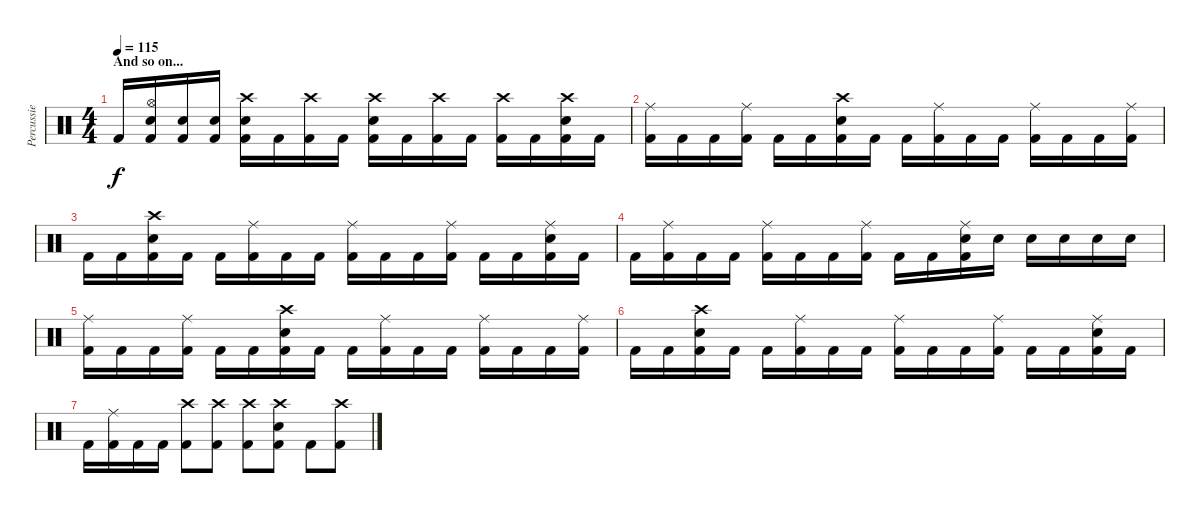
\track ("Percussie" "Percussie") {instrument percussion}
\staff {score}
\articulation defaults
\ts (4 4)
\section ("" "And so on...")
\tempo 115
\clef neutral
\ks c "Kick (hit) 2".16{dy f}
("Hi-Hat (open)" "Electric Snare (hit)" "Kick (hit) 2").16 ("Electric Snare (hit)" "Kick (hit) 2").16 ("Electric Snare (hit)" "Kick (hit) 2").16 ("Crash high (hit)" "Electric Snare (hit)" "Kick (hit) 2").16 "Kick (hit) 2".16 ("Crash high (hit)" "Kick (hit) 2").16 "Kick (hit) 2".16 ("Crash high (hit)" "Electric Snare (hit)" "Kick (hit) 2").16 "Kick (hit) 2".16 ("Crash high (hit)" "Kick (hit) 2").16 "Kick (hit) 2".16 ("Crash high (hit)" "Kick (hit) 2").16 "Kick (hit) 2".16 ("Crash high (hit)" "Electric Snare (hit)" "Kick (hit) 2").16 "Kick (hit) 2".16 |
("Ride (middle)" "Kick (hit) 2").16 "Kick (hit) 2".16 "Kick (hit) 2".16 ("Ride (middle)" "Kick (hit) 2").16 "Kick (hit) 2".16 "Kick (hit) 2".16 ("Crash high (hit)" "Electric Snare (hit)" "Kick (hit) 2").16 "Kick (hit) 2".16 "Kick (hit) 2".16 ("Ride (middle)" "Kick (hit) 2").16 "Kick (hit) 2".16 "Kick (hit) 2".16 ("Ride (middle)" "Kick (hit) 2").16 "Kick (hit) 2".16 "Kick (hit) 2".16 ("Ride (middle)" "Kick (hit) 2").16 |
"Kick (hit) 2".16 "Kick (hit) 2".16 ("Crash high (hit)" "Electric Snare (hit)" "Kick (hit) 2").16 "Kick (hit) 2".16 "Kick (hit) 2".16 ("Ride (middle)" "Kick (hit) 2").16 "Kick (hit) 2".16 "Kick (hit) 2".16 ("Ride (middle)" "Kick (hit) 2").16 "Kick (hit) 2".16 "Kick (hit) 2".16 ("Ride (middle)" "Kick (hit) 2").16 "Kick (hit) 2".16 "Kick (hit) 2".16 ("Ride (middle)" "Electric Snare (hit)" "Kick (hit) 2").16 "Kick (hit) 2".16 |
"Kick (hit) 2".16 ("Ride (middle)" "Kick (hit) 2").16 "Kick (hit) 2".16 "Kick (hit) 2".16 ("Ride (middle)" "Kick (hit) 2").16 "Kick (hit) 2".16 "Kick (hit) 2".16 ("Ride (middle)" "Kick (hit) 2").16 "Kick (hit) 2".16 "Kick (hit) 2".16 ("Ride (middle)" "Electric Snare (hit)" "Kick (hit) 2").16 "Electric Snare (hit)".16 "Electric Snare (hit)".16 "Electric Snare (hit)".16 "Electric Snare (hit)".16 "Electric Snare (hit)".16 |
("Ride (middle)" "Kick (hit) 2").16 "Kick (hit) 2".16 "Kick (hit) 2".16 ("Ride (middle)" "Kick (hit) 2").16 "Kick (hit) 2".16 "Kick (hit) 2".16 ("Crash high (hit)" "Electric Snare (hit)" "Kick (hit) 2").16 "Kick (hit) 2".16 "Kick (hit) 2".16 ("Ride (middle)" "Kick (hit) 2").16 "Kick (hit) 2".16 "Kick (hit) 2".16 ("Ride (middle)" "Kick (hit) 2").16 "Kick (hit) 2".16 "Kick (hit) 2".16 ("Ride (middle)" "Kick (hit) 2").16 |
"Kick (hit) 2".16 "Kick (hit) 2".16 ("Crash high (hit)" "Electric Snare (hit)" "Kick (hit) 2").16 "Kick (hit) 2".16 "Kick (hit) 2".16 ("Ride (middle)" "Kick (hit) 2").16 "Kick (hit) 2".16 "Kick (hit) 2".16 ("Ride (middle)" "Kick (hit) 2").16 "Kick (hit) 2".16 "Kick (hit) 2".16 ("Ride (middle)" "Kick (hit) 2").16 "Kick (hit) 2".16 "Kick (hit) 2".16 ("Ride (middle)" "Electric Snare (hit)" "Kick (hit) 2").16 "Kick (hit) 2".16 |
"Kick (hit) 2".16 ("Ride (middle)" "Kick (hit) 2").16 "Kick (hit) 2".16 "Kick (hit) 2".16 ("Crash high (hit)" "Kick (hit) 2").8 ("Crash high (hit)" "Kick (hit) 2").8 ("Crash high (hit)" "Kick (hit) 2").8 ("Crash high (hit)" "Electric Snare (hit)" "Kick (hit) 2").8 "Kick (hit) 2".8 ("Crash high (hit)" "Kick (hit) 2").8
